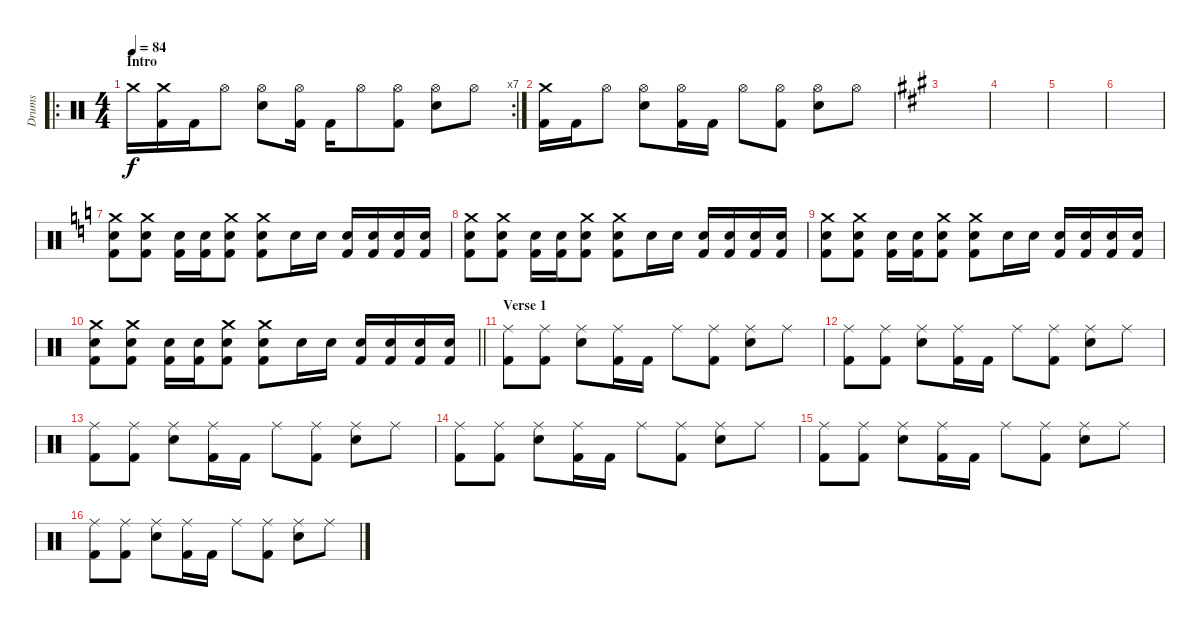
\track ("Drums" "Drums") {instrument percussion}
\staff {score}
\articulation defaults
\ro
\rc 7
\ts (4 4)
\section ("" "Intro")
\tempo 84
\clef neutral
\ks c "Crash medium (hit)".16{dy f}
("Crash medium (hit)" "Kick (hit) 2").16 "Kick (hit) 2".16 "Hi-Hat (open)".8 ("Hi-Hat (open)" "Electric Snare (hit)").8 ("Hi-Hat (open)" "Kick (hit) 2").16 "Kick (hit) 2".16 "Hi-Hat (open)".8 ("Hi-Hat (open)" "Kick (hit) 2").8 ("Hi-Hat (open)" "Electric Snare (hit)").8 "Hi-Hat (open)".8 |
("Crash medium (hit)" "Kick (hit) 2").16 "Kick (hit) 2".16 "Hi-Hat (open)".8 ("Hi-Hat (open)" "Electric Snare (hit)").8 ("Hi-Hat (open)" "Kick (hit) 2").16 "Kick (hit) 2".16 "Hi-Hat (open)".8 ("Hi-Hat (open)" "Kick (hit) 2").8 ("Hi-Hat (open)" "Electric Snare (hit)").8 "Hi-Hat (open)".8 |
\ks a
|
|
|
|
\ks c
("Crash medium (hit)" "Electric Snare (hit)" "Kick (hit) 2").8 ("Crash medium (hit)" "Electric Snare (hit)" "Kick (hit) 2").8 ("Electric Snare (hit)" "Kick (hit) 2").16 ("Electric Snare (hit)" "Kick (hit) 2").16 ("Crash medium (hit)" "Electric Snare (hit)" "Kick (hit) 2").8 ("Crash medium (hit)" "Electric Snare (hit)" "Kick (hit) 2").8 "Electric Snare (hit)".16 "Electric Snare (hit)".16 ("Electric Snare (hit)" "Kick (hit) 2").16 ("Electric Snare (hit)" "Kick (hit) 2").16 ("Electric Snare (hit)" "Kick (hit) 2").16 ("Electric Snare (hit)" "Kick (hit) 2").16 |
("Crash medium (hit)" "Electric Snare (hit)" "Kick (hit) 2").8 ("Crash medium (hit)" "Electric Snare (hit)" "Kick (hit) 2").8 ("Electric Snare (hit)" "Kick (hit) 2").16 ("Electric Snare (hit)" "Kick (hit) 2").16 ("Crash medium (hit)" "Electric Snare (hit)" "Kick (hit) 2").8 ("Crash medium (hit)" "Electric Snare (hit)" "Kick (hit) 2").8 "Electric Snare (hit)".16 "Electric Snare (hit)".16 ("Electric Snare (hit)" "Kick (hit) 2").16 ("Electric Snare (hit)" "Kick (hit) 2").16 ("Electric Snare (hit)" "Kick (hit) 2").16 ("Electric Snare (hit)" "Kick (hit) 2").16 |
("Crash medium (hit)" "Electric Snare (hit)" "Kick (hit) 2").8 ("Crash medium (hit)" "Electric Snare (hit)" "Kick (hit) 2").8 ("Electric Snare (hit)" "Kick (hit) 2").16 ("Electric Snare (hit)" "Kick (hit) 2").16 ("Crash medium (hit)" "Electric Snare (hit)" "Kick (hit) 2").8 ("Crash medium (hit)" "Electric Snare (hit)" "Kick (hit) 2").8 "Electric Snare (hit)".16 "Electric Snare (hit)".16 ("Electric Snare (hit)" "Kick (hit) 2").16 ("Electric Snare (hit)" "Kick (hit) 2").16 ("Electric Snare (hit)" "Kick (hit) 2").16 ("Electric Snare (hit)" "Kick (hit) 2").16 |
\barLineRight lightlight
("Crash medium (hit)" "Electric Snare (hit)" "Kick (hit) 2").8 ("Crash medium (hit)" "Electric Snare (hit)" "Kick (hit) 2").8 ("Electric Snare (hit)" "Kick (hit) 2").16 ("Electric Snare (hit)" "Kick (hit) 2").16 ("Crash medium (hit)" "Electric Snare (hit)" "Kick (hit) 2").8 ("Crash medium (hit)" "Electric Snare (hit)" "Kick (hit) 2").8 "Electric Snare (hit)".16 "Electric Snare (hit)".16 ("Electric Snare (hit)" "Kick (hit) 2").16 ("Electric Snare (hit)" "Kick (hit) 2").16 ("Electric Snare (hit)" "Kick (hit) 2").16 ("Electric Snare (hit)" "Kick (hit) 2").16 |
\section ("" "Verse 1")
("Ride (middle)" "Kick (hit) 2").8 ("Ride (middle)" "Kick (hit) 2").8 ("Ride (middle)" "Electric Snare (hit)").8 ("Ride (middle)" "Kick (hit) 2").16 "Kick (hit) 2".16 "Ride (middle)".8 ("Ride (middle)" "Kick (hit) 2").8 ("Ride (middle)" "Electric Snare (hit)").8 "Ride (middle)".8 |
("Ride (middle)" "Kick (hit) 2").8 ("Ride (middle)" "Kick (hit) 2").8 ("Ride (middle)" "Electric Snare (hit)").8 ("Ride (middle)" "Kick (hit) 2").16 "Kick (hit) 2".16 "Ride (middle)".8 ("Ride (middle)" "Kick (hit) 2").8 ("Ride (middle)" "Electric Snare (hit)").8 "Ride (middle)".8 |
("Ride (middle)" "Kick (hit) 2").8 ("Ride (middle)" "Kick (hit) 2").8 ("Ride (middle)" "Electric Snare (hit)").8 ("Ride (middle)" "Kick (hit) 2").16 "Kick (hit) 2".16 "Ride (middle)".8 ("Ride (middle)" "Kick (hit) 2").8 ("Ride (middle)" "Electric Snare (hit)").8 "Ride (middle)".8 |
("Ride (middle)" "Kick (hit) 2").8 ("Ride (middle)" "Kick (hit) 2").8 ("Ride (middle)" "Electric Snare (hit)").8 ("Ride (middle)" "Kick (hit) 2").16 "Kick (hit) 2".16 "Ride (middle)".8 ("Ride (middle)" "Kick (hit) 2").8 ("Ride (middle)" "Electric Snare (hit)").8 "Ride (middle)".8 |
("Ride (middle)" "Kick (hit) 2").8 ("Ride (middle)" "Kick (hit) 2").8 ("Ride (middle)" "Electric Snare (hit)").8 ("Ride (middle)" "Kick (hit) 2").16 "Kick (hit) 2".16 "Ride (middle)".8 ("Ride (middle)" "Kick (hit) 2").8 ("Ride (middle)" "Electric Snare (hit)").8 "Ride (middle)".8 |
("Ride (middle)" "Kick (hit) 2").8 ("Ride (middle)" "Kick (hit) 2").8 ("Ride (middle)" "Electric Snare (hit)").8 ("Ride (middle)" "Kick (hit) 2").16 "Kick (hit) 2".16 "Ride (middle)".8 ("Ride (middle)" "Kick (hit) 2").8 ("Ride (middle)" "Electric Snare (hit)").8 "Ride (middle)".8
